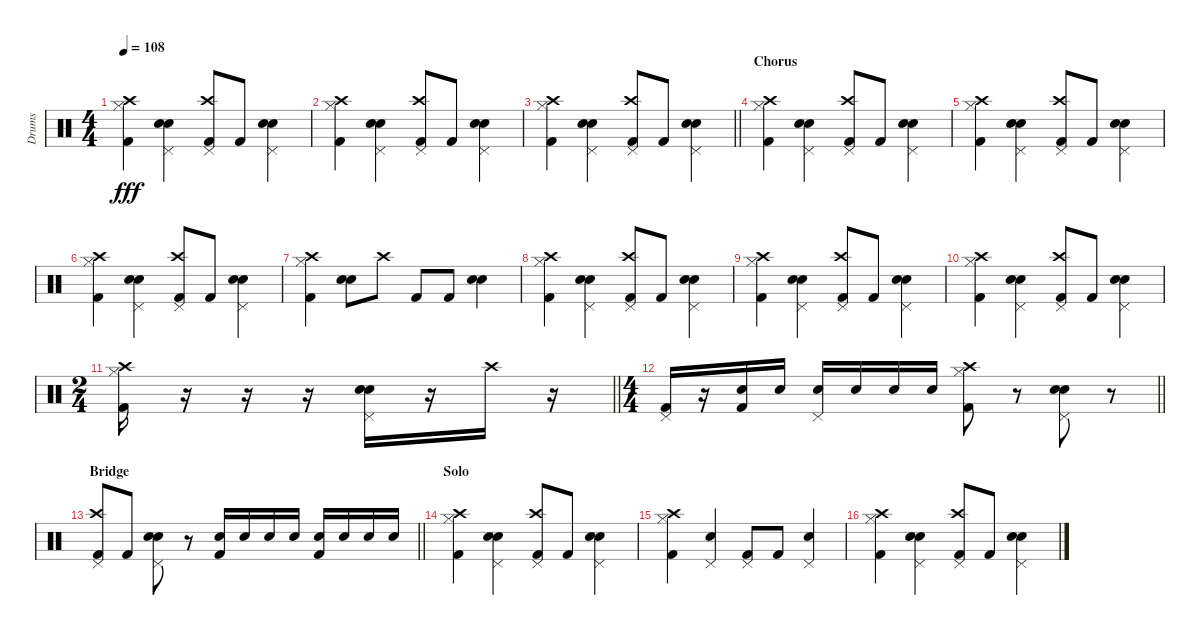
\track ("Drums" "Drums") {instrument percussion}
\staff {score}
\articulation defaults
\ts (4 4)
\tempo 108
\clef neutral
\ks c
("Hi-Hat (closed)" "Kick (hit) 2" "Crash high (hit)").4{dy fff} ("Electric Snare (hit)" "Pedal Hi-Hat (hit)" "Snare (hit) 2").4 ("Pedal Hi-Hat (hit)" "Kick (hit) 2" "Crash high (hit)").8 "Kick (hit) 2".8 ("Electric Snare (hit)" "Pedal Hi-Hat (hit)" "Snare (hit) 2").4 |
("Hi-Hat (closed)" "Kick (hit) 2" "Crash high (hit)").4 ("Electric Snare (hit)" "Pedal Hi-Hat (hit)" "Snare (hit) 2").4 ("Pedal Hi-Hat (hit)" "Kick (hit) 2" "Crash high (hit)").8 "Kick (hit) 2".8 ("Electric Snare (hit)" "Pedal Hi-Hat (hit)" "Snare (hit) 2").4 |
\barLineRight lightlight
("Hi-Hat (closed)" "Kick (hit) 2" "Crash high (hit)").4 ("Electric Snare (hit)" "Pedal Hi-Hat (hit)" "Snare (hit) 2").4 ("Pedal Hi-Hat (hit)" "Kick (hit) 2" "Crash high (hit)").8 "Kick (hit) 2".8 ("Electric Snare (hit)" "Pedal Hi-Hat (hit)" "Snare (hit) 2").4 |
\section ("" "Chorus")
("Hi-Hat (closed)" "Kick (hit) 2" "Crash high (hit)").4 ("Electric Snare (hit)" "Pedal Hi-Hat (hit)" "Snare (hit) 2").4 ("Pedal Hi-Hat (hit)" "Kick (hit) 2" "Crash high (hit)").8 "Kick (hit) 2".8 ("Electric Snare (hit)" "Pedal Hi-Hat (hit)" "Snare (hit) 2").4 |
("Hi-Hat (closed)" "Kick (hit) 2" "Crash high (hit)").4 ("Electric Snare (hit)" "Pedal Hi-Hat (hit)" "Snare (hit) 2").4 ("Pedal Hi-Hat (hit)" "Kick (hit) 2" "Crash high (hit)").8 "Kick (hit) 2".8 ("Electric Snare (hit)" "Pedal Hi-Hat (hit)" "Snare (hit) 2").4 |
("Hi-Hat (closed)" "Kick (hit) 2" "Crash high (hit)").4 ("Electric Snare (hit)" "Pedal Hi-Hat (hit)" "Snare (hit) 2").4 ("Pedal Hi-Hat (hit)" "Kick (hit) 2" "Crash high (hit)").8 "Kick (hit) 2".8 ("Electric Snare (hit)" "Pedal Hi-Hat (hit)" "Snare (hit) 2").4 |
("Hi-Hat (closed)" "Kick (hit) 2" "Crash high (hit)").4 ("Electric Snare (hit)" "Snare (hit) 2").8 "Crash high (hit)".8 "Kick (hit) 2".8 "Kick (hit) 2".8 ("Electric Snare (hit)" "Snare (hit) 2").4 |
("Hi-Hat (closed)" "Kick (hit) 2" "Crash high (hit)").4 ("Electric Snare (hit)" "Pedal Hi-Hat (hit)" "Snare (hit) 2").4 ("Pedal Hi-Hat (hit)" "Kick (hit) 2" "Crash high (hit)").8 "Kick (hit) 2".8 ("Electric Snare (hit)" "Pedal Hi-Hat (hit)" "Snare (hit) 2").4 |
("Hi-Hat (closed)" "Kick (hit) 2" "Crash high (hit)").4 ("Electric Snare (hit)" "Pedal Hi-Hat (hit)" "Snare (hit) 2").4 ("Pedal Hi-Hat (hit)" "Kick (hit) 2" "Crash high (hit)").8 "Kick (hit) 2".8 ("Electric Snare (hit)" "Pedal Hi-Hat (hit)" "Snare (hit) 2").4 |
("Hi-Hat (closed)" "Kick (hit) 2" "Crash high (hit)").4 ("Electric Snare (hit)" "Pedal Hi-Hat (hit)" "Snare (hit) 2").4 ("Pedal Hi-Hat (hit)" "Kick (hit) 2" "Crash high (hit)").8 "Kick (hit) 2".8 ("Electric Snare (hit)" "Pedal Hi-Hat (hit)" "Snare (hit) 2").4 |
\ts (2 4)
\barLineRight lightlight
("Hi-Hat (closed)" "Kick (hit) 2" "Crash high (hit)").16 r.16 r.16 r.16 ("Electric Snare (hit)" "Pedal Hi-Hat (hit)" "Snare (hit) 2").16 r.16 "Crash high (hit)".16 r.16 |
\ts (4 4)
\barLineRight lightlight
("Pedal Hi-Hat (hit)" "Kick (hit) 2").16 r.16 ("Kick (hit) 2" "Snare (hit) 2").16 "Snare (hit) 2".16 ("Pedal Hi-Hat (hit)" "Electric Snare (hit)").16 "Electric Snare (hit)".16 "Electric Snare (hit)".16 "Electric Snare (hit)".16 ("Hi-Hat (closed)" "Kick (hit) 2" "Crash high (hit)").8 r.8 ("Electric Snare (hit)" "Pedal Hi-Hat (hit)" "Snare (hit) 2").8 r.8 |
\section ("" "Bridge")
\barLineRight lightlight
("Pedal Hi-Hat (hit)" "Kick (hit) 2" "Crash high (hit)").8 "Kick (hit) 2".8 ("Electric Snare (hit)" "Pedal Hi-Hat (hit)" "Snare (hit) 2").8 r.8 ("Electric Snare (hit)" "Kick (hit) 2").16 "Electric Snare (hit)".16 "Electric Snare (hit)".16 "Electric Snare (hit)".16 ("Snare (hit) 2" "Kick (hit) 2").16 "Snare (hit) 2".16 "Snare (hit) 2".16 "Snare (hit) 2".16 |
\section ("" "Solo")
("Hi-Hat (closed)" "Kick (hit) 2" "Crash high (hit)").4 ("Electric Snare (hit)" "Pedal Hi-Hat (hit)" "Snare (hit) 2").4 ("Pedal Hi-Hat (hit)" "Kick (hit) 2" "Crash high (hit)").8 "Kick (hit) 2".8 ("Electric Snare (hit)" "Pedal Hi-Hat (hit)" "Snare (hit) 2").4 |
("Hi-Hat (closed)" "Kick (hit) 2" "Crash high (hit)").4 ("Electric Snare (hit)" "Pedal Hi-Hat (hit)").4 ("Pedal Hi-Hat (hit)" "Kick (hit) 2").8 "Kick (hit) 2".8 ("Electric Snare (hit)" "Pedal Hi-Hat (hit)").4 |
("Hi-Hat (closed)" "Kick (hit) 2" "Crash high (hit)").4 ("Electric Snare (hit)" "Pedal Hi-Hat (hit)" "Snare (hit) 2").4 ("Pedal Hi-Hat (hit)" "Kick (hit) 2" "Crash high (hit)").8 "Kick (hit) 2".8 ("Electric Snare (hit)" "Pedal Hi-Hat (hit)" "Snare (hit) 2").4
